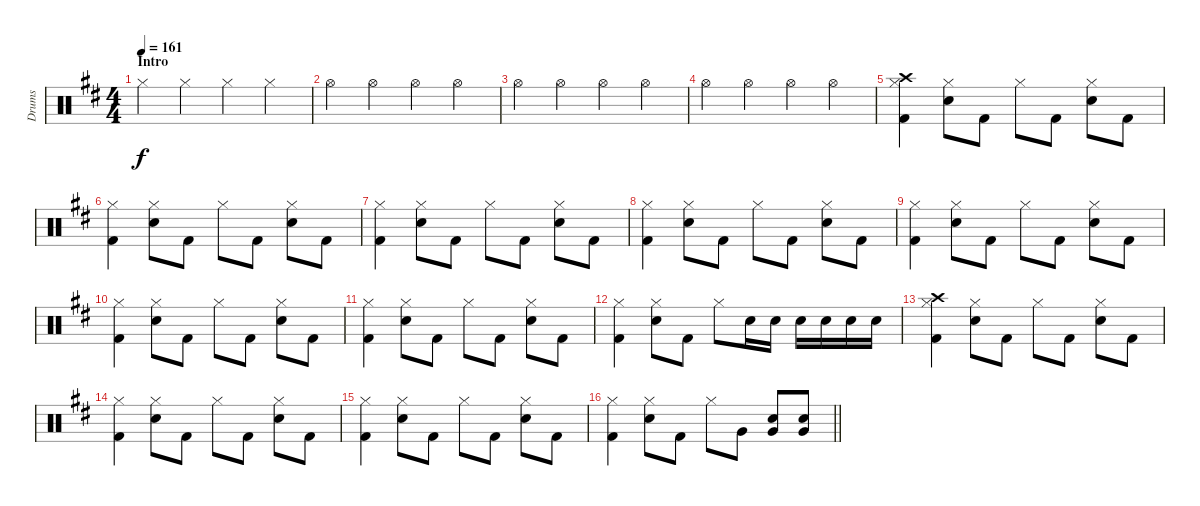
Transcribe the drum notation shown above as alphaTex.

\track ("Drums" "Drums") {instrument percussion}
\staff {score}
\articulation defaults
\ts (4 4)
\section ("" "Intro")
\tempo 161
\clef neutral
\ks d "Hi-Hat (closed)".4{dy f} "Hi-Hat (closed)".4 "Hi-Hat (closed)".4 "Hi-Hat (closed)".4
|
"Hi-Hat (open)".4 "Hi-Hat (open)".4 "Hi-Hat (open)".4 "Hi-Hat (open)".4 |
"Hi-Hat (open)".4 "Hi-Hat (open)".4 "Hi-Hat (open)".4 "Hi-Hat (open)".4 |
"Hi-Hat (open)".4 "Hi-Hat (open)".4 "Hi-Hat (open)".4 "Hi-Hat (open)".4 |
("Hi-Hat (closed)" "Crash high (hit)" "Kick (hit) 2").4 ("Hi-Hat (closed)" "Electric Snare (hit)").8 "Kick (hit) 2".8 "Hi-Hat (closed)".8 "Kick (hit) 2".8 ("Hi-Hat (closed)" "Electric Snare (hit)").8 "Kick (hit) 2".8 |
("Hi-Hat (closed)" "Kick (hit) 2").4 ("Hi-Hat (closed)" "Electric Snare (hit)").8 "Kick (hit) 2".8 "Hi-Hat (closed)".8 "Kick (hit) 2".8 ("Hi-Hat (closed)" "Electric Snare (hit)").8 "Kick (hit) 2".8 |
("Hi-Hat (closed)" "Kick (hit) 2").4 ("Hi-Hat (closed)" "Electric Snare (hit)").8 "Kick (hit) 2".8 "Hi-Hat (closed)".8 "Kick (hit) 2".8 ("Hi-Hat (closed)" "Electric Snare (hit)").8 "Kick (hit) 2".8 |
("Hi-Hat (closed)" "Kick (hit) 2").4 ("Hi-Hat (closed)" "Electric Snare (hit)").8 "Kick (hit) 2".8 "Hi-Hat (closed)".8 "Kick (hit) 2".8 ("Hi-Hat (closed)" "Electric Snare (hit)").8 "Kick (hit) 2".8 |
("Hi-Hat (closed)" "Kick (hit) 2").4 ("Hi-Hat (closed)" "Electric Snare (hit)").8 "Kick (hit) 2".8 "Hi-Hat (closed)".8 "Kick (hit) 2".8 ("Hi-Hat (closed)" "Electric Snare (hit)").8 "Kick (hit) 2".8 |
("Hi-Hat (closed)" "Kick (hit) 2").4 ("Hi-Hat (closed)" "Electric Snare (hit)").8 "Kick (hit) 2".8 "Hi-Hat (closed)".8 "Kick (hit) 2".8 ("Hi-Hat (closed)" "Electric Snare (hit)").8 "Kick (hit) 2".8 |
("Hi-Hat (closed)" "Kick (hit) 2").4 ("Hi-Hat (closed)" "Electric Snare (hit)").8 "Kick (hit) 2".8 "Hi-Hat (closed)".8 "Kick (hit) 2".8 ("Hi-Hat (closed)" "Electric Snare (hit)").8 "Kick (hit) 2".8 |
("Hi-Hat (closed)" "Kick (hit) 2").4 ("Hi-Hat (closed)" "Electric Snare (hit)").8 "Kick (hit) 2".8 "Hi-Hat (closed)".8 "Electric Snare (hit)".16 "Electric Snare (hit)".16 "Electric Snare (hit)".16 "Electric Snare (hit)".16 "Electric Snare (hit)".16 "Electric Snare (hit)".16 |
("Hi-Hat (closed)" "Crash high (hit)" "Kick (hit) 2").4 ("Hi-Hat (closed)" "Electric Snare (hit)").8 "Kick (hit) 2".8 "Hi-Hat (closed)".8 "Kick (hit) 2".8 ("Hi-Hat (closed)" "Electric Snare (hit)").8 "Kick (hit) 2".8 |
("Hi-Hat (closed)" "Kick (hit) 2").4 ("Hi-Hat (closed)" "Electric Snare (hit)").8 "Kick (hit) 2".8 "Hi-Hat (closed)".8 "Kick (hit) 2".8 ("Hi-Hat (closed)" "Electric Snare (hit)").8 "Kick (hit) 2".8 |
("Hi-Hat (closed)" "Kick (hit) 2").4 ("Hi-Hat (closed)" "Electric Snare (hit)").8 "Kick (hit) 2".8 "Hi-Hat (closed)".8 "Kick (hit) 2".8 ("Hi-Hat (closed)" "Electric Snare (hit)").8 "Kick (hit) 2".8 |
\barLineRight lightlight
("Hi-Hat (closed)" "Kick (hit) 2").4 ("Hi-Hat (closed)" "Electric Snare (hit)").8 "Kick (hit) 2".8 "Hi-Hat (closed)".8 "Very Low Tom (hit)".8 ("Electric Snare (hit)" "Very Low Tom (hit)").8 ("Electric Snare (hit)" "Very Low Tom (hit)").8
